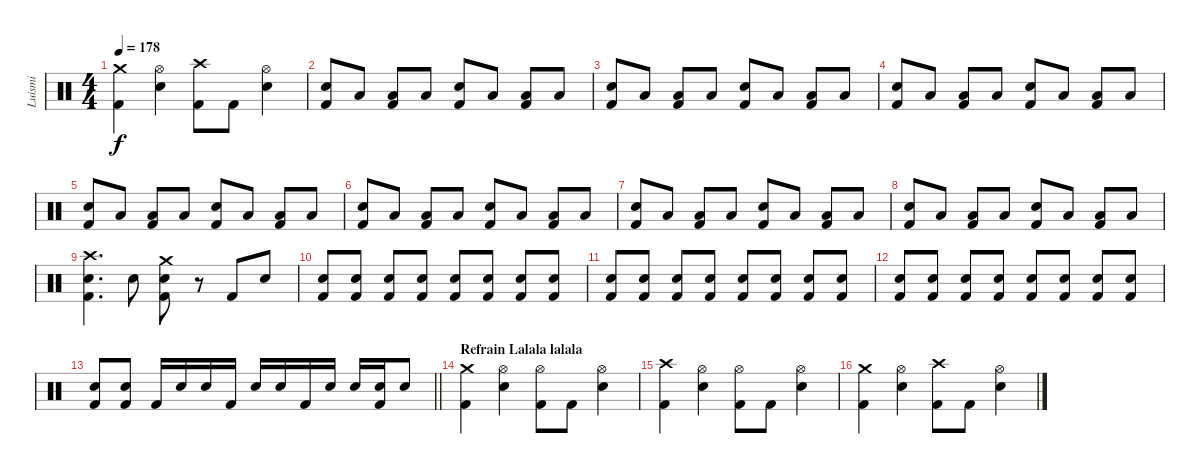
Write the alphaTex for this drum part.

\track ("Luismi" "Luismi") {instrument percussion}
\staff {score}
\articulation defaults
\ts (4 4)
\tempo 178
\clef neutral
\ks c
("Crash medium (hit)" "Kick (hit) 2").4{dy f} ("Hi-Hat (open)" "Snare (hit) 2").4 ("Crash high (hit)" "Kick (hit) 2").8 "Kick (hit) 2".8 ("Hi-Hat (open)" "Snare (hit) 2").4 |
("Snare (hit) 2" "Kick (hit) 2").8 "Low Tom (hit)".8 ("Low Floor Tom (hit)" "Kick (hit) 2").8 "Low Floor Tom (hit)".8 ("Snare (hit) 2" "Kick (hit) 2").8 "Low Tom (hit)".8 ("Low Floor Tom (hit)" "Kick (hit) 2").8 "Low Floor Tom (hit)".8 |
("Snare (hit) 2" "Kick (hit) 2").8 "Low Tom (hit)".8 ("Low Floor Tom (hit)" "Kick (hit) 2").8 "Low Floor Tom (hit)".8 ("Snare (hit) 2" "Kick (hit) 2").8 "Low Tom (hit)".8 ("Low Floor Tom (hit)" "Kick (hit) 2").8 "Low Floor Tom (hit)".8 |
("Snare (hit) 2" "Kick (hit) 2").8 "Low Tom (hit)".8 ("Low Floor Tom (hit)" "Kick (hit) 2").8 "Low Floor Tom (hit)".8 ("Snare (hit) 2" "Kick (hit) 2").8 "Low Tom (hit)".8 ("Low Floor Tom (hit)" "Kick (hit) 2").8 "Low Floor Tom (hit)".8 |
("Snare (hit) 2" "Kick (hit) 2").8 "Low Tom (hit)".8 ("Low Floor Tom (hit)" "Kick (hit) 2").8 "Low Floor Tom (hit)".8 ("Snare (hit) 2" "Kick (hit) 2").8 "Low Tom (hit)".8 ("Low Floor Tom (hit)" "Kick (hit) 2").8 "Low Floor Tom (hit)".8 |
("Snare (hit) 2" "Kick (hit) 2").8 "Low Tom (hit)".8 ("Low Floor Tom (hit)" "Kick (hit) 2").8 "Low Floor Tom (hit)".8 ("Snare (hit) 2" "Kick (hit) 2").8 "Low Tom (hit)".8 ("Low Floor Tom (hit)" "Kick (hit) 2").8 "Low Floor Tom (hit)".8 |
("Snare (hit) 2" "Kick (hit) 2").8 "Low Tom (hit)".8 ("Low Floor Tom (hit)" "Kick (hit) 2").8 "Low Floor Tom (hit)".8 ("Snare (hit) 2" "Kick (hit) 2").8 "Low Tom (hit)".8 ("Low Floor Tom (hit)" "Kick (hit) 2").8 "Low Floor Tom (hit)".8 |
("Snare (hit) 2" "Kick (hit) 2").8 "Low Tom (hit)".8 ("Low Floor Tom (hit)" "Kick (hit) 2").8 "Low Floor Tom (hit)".8 ("Snare (hit) 2" "Kick (hit) 2").8 "Low Tom (hit)".8 ("Low Floor Tom (hit)" "Kick (hit) 2").8 "Low Floor Tom (hit)".8 |
("Crash high (hit)" "Snare (hit) 2" "Kick (hit) 2").4{d} "Snare (hit) 2".8 ("Crash medium (hit)" "Snare (hit) 2" "Kick (hit) 2").8 r.8 "Kick (hit) 2".8 "Snare (hit) 2".8 |
("Snare (hit) 2" "Kick (hit) 2").8{volume 7} ("Snare (hit) 2" "Kick (hit) 2").8{volume 14} ("Snare (hit) 2" "Kick (hit) 2").8 ("Snare (hit) 2" "Kick (hit) 2").8 ("Snare (hit) 2" "Kick (hit) 2").8 ("Snare (hit) 2" "Kick (hit) 2").8 ("Snare (hit) 2" "Kick (hit) 2").8 ("Snare (hit) 2" "Kick (hit) 2").8 |
("Snare (hit) 2" "Kick (hit) 2").8 ("Snare (hit) 2" "Kick (hit) 2").8 ("Snare (hit) 2" "Kick (hit) 2").8 ("Snare (hit) 2" "Kick (hit) 2").8 ("Snare (hit) 2" "Kick (hit) 2").8 ("Snare (hit) 2" "Kick (hit) 2").8 ("Snare (hit) 2" "Kick (hit) 2").8 ("Snare (hit) 2" "Kick (hit) 2").8 |
("Snare (hit) 2" "Kick (hit) 2").8 ("Snare (hit) 2" "Kick (hit) 2").8 ("Snare (hit) 2" "Kick (hit) 2").8 ("Snare (hit) 2" "Kick (hit) 2").8 ("Snare (hit) 2" "Kick (hit) 2").8 ("Snare (hit) 2" "Kick (hit) 2").8 ("Snare (hit) 2" "Kick (hit) 2").8 ("Snare (hit) 2" "Kick (hit) 2").8 |
\barLineRight lightlight
("Snare (hit) 2" "Kick (hit) 2").8 ("Snare (hit) 2" "Kick (hit) 2").8 "Kick (hit) 2".16 "Snare (hit) 2".16 "Snare (hit) 2".16 "Kick (hit) 2".16 "Snare (hit) 2".16 "Snare (hit) 2".16 "Kick (hit) 2".16 "Snare (hit) 2".16 "Snare (hit) 2".16 ("Snare (hit) 2" "Kick (hit) 2").16 "Snare (hit) 2".8 |
\section ("" "Refrain Lalala lalala ")
("Crash medium (hit)" "Kick (hit) 2").4 ("Hi-Hat (open)" "Snare (hit) 2").4 ("Hi-Hat (open)" "Kick (hit) 2").8 "Kick (hit) 2".8 ("Hi-Hat (open)" "Snare (hit) 2").4 |
("Crash high (hit)" "Kick (hit) 2").4 ("Hi-Hat (open)" "Snare (hit) 2").4 ("Hi-Hat (open)" "Kick (hit) 2").8 "Kick (hit) 2".8 ("Hi-Hat (open)" "Snare (hit) 2").4 |
("Crash medium (hit)" "Kick (hit) 2").4 ("Hi-Hat (open)" "Snare (hit) 2").4 ("Crash high (hit)" "Kick (hit) 2").8 "Kick (hit) 2".8 ("Hi-Hat (open)" "Snare (hit) 2").4
